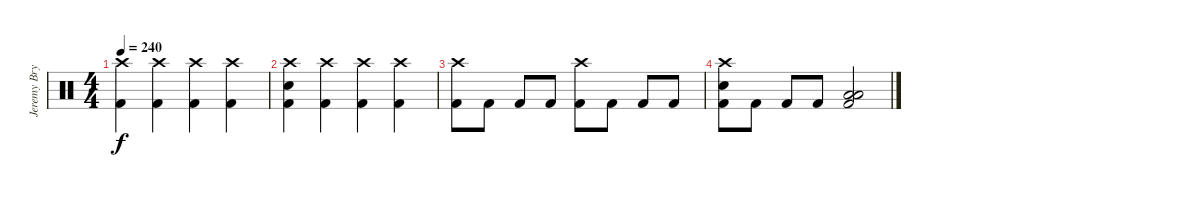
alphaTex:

\track ("Jeremy Bryan - Drums" "Jeremy Bry") {instrument percussion}
\staff {score}
\articulation defaults
\ts (4 4)
\tempo 240
\clef neutral
\ks c
("Crash high (hit)" "Kick (hit) 2").4{dy f} ("Crash high (hit)" "Kick (hit) 2").4 ("Crash high (hit)" "Kick (hit) 2").4 ("Crash high (hit)" "Kick (hit) 2").4 |
("Crash high (hit)" "Electric Snare (hit)" "Kick (hit) 2").4 ("Crash high (hit)" "Kick (hit) 2").4 ("Crash high (hit)" "Kick (hit) 2").4 ("Crash high (hit)" "Kick (hit) 2").4 |
("Crash high (hit)" "Kick (hit) 2").8 "Kick (hit) 2".8 "Kick (hit) 2".8 "Kick (hit) 2".8 ("Crash high (hit)" "Kick (hit) 2").8 "Kick (hit) 2".8 "Kick (hit) 2".8 "Kick (hit) 2".8 |
("Crash high (hit)" "Electric Snare (hit)" "Kick (hit) 2").8 "Kick (hit) 2".8 "Kick (hit) 2".8 "Kick (hit) 2".8 ("Low Tom (hit)" "Low Floor Tom (hit)" "Kick (hit) 2").2
